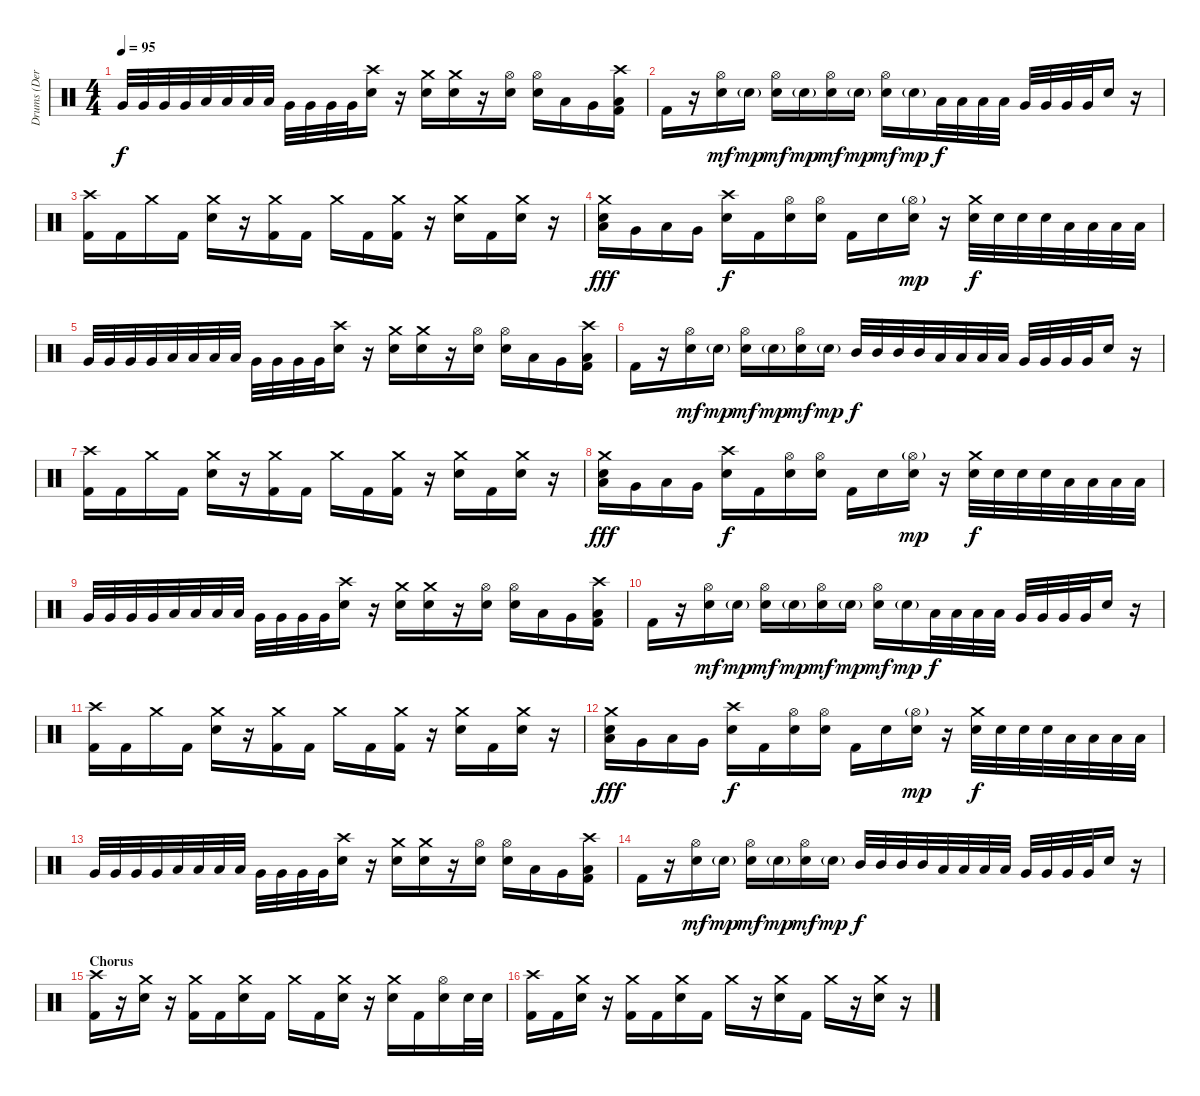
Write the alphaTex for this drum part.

\track ("Drums (Derek Bloom)" "Drums (Der") {instrument percussion}
\staff {score}
\articulation defaults
\ts (4 4)
\tempo 95
\clef neutral
\ks c "Very Low Tom (hit)".32{dy f} "Very Low Tom (hit)".32 "Very Low Tom (hit)".32 "Very Low Tom (hit)".32 "Low Tom (hit)".32 "Low Tom (hit)".32 "Low Tom (hit)".32 "Low Tom (hit)".32 "Very Low Tom (hit)".32 "Very Low Tom (hit)".32 "Very Low Tom (hit)".32 "Very Low Tom (hit)".32
("Crash high (hit)" "Electric Snare (hit)").16 r.16 ("Crash medium (hit)" "Electric Snare (hit)").16 ("Crash medium (hit)" "Electric Snare (hit)").16 r.16 ("Hi-Hat (open)" "Electric Snare (hit)").16 ("Hi-Hat (open)" "Electric Snare (hit)").16 "Low Tom (hit)".16 "Very Low Tom (hit)".16 ("Crash high (hit)" "Low Floor Tom (hit)" "Kick (hit) 2").16 |
"Kick (hit) 2".16 r.16 ("Hi-Hat (open)" "Electric Snare (hit)").16{dy mf} "Electric Snare (hit)"{g}.16{dy mp} ("Hi-Hat (open)" "Electric Snare (hit)").16{dy mf} "Electric Snare (hit)"{g}.16{dy mp} ("Hi-Hat (open)" "Electric Snare (hit)").16{dy mf} "Electric Snare (hit)"{g}.16{dy mp} ("Hi-Hat (open)" "Electric Snare (hit)").16{dy mf} "Electric Snare (hit)"{g}.16{dy mp} "Low Tom (hit)".32{dy f} "Low Tom (hit)".32 "Low Tom (hit)".32 "Low Tom (hit)".32 "Very Low Tom (hit)".32 "Very Low Tom (hit)".32 "Very Low Tom (hit)".32 "Very Low Tom (hit)".32 "Electric Snare (hit)".16 r.16 |
("Crash high (hit)" "Kick (hit) 2").16 "Kick (hit) 2".16 "Crash medium (hit)".16 "Kick (hit) 2".16 ("Crash medium (hit)" "Electric Snare (hit)").16 r.16 ("Crash medium (hit)" "Kick (hit) 2").16 "Kick (hit) 2".16 "Crash medium (hit)".16 "Kick (hit) 2".16 ("Crash medium (hit)" "Kick (hit) 2").16 r.16 ("Crash medium (hit)" "Electric Snare (hit)").16 "Kick (hit) 2".16 ("Crash medium (hit)" "Electric Snare (hit)").16 r.16 |
("Crash medium (hit)" "Electric Snare (hit)" "Low Tom (hit)").16{dy fff} "Very Low Tom (hit)".16 "Low Tom (hit)".16 "Very Low Tom (hit)".16 ("Crash high (hit)" "Electric Snare (hit)").16{dy f} "Kick (hit) 2".16 ("Hi-Hat (open)" "Electric Snare (hit)").16 ("Hi-Hat (open)" "Electric Snare (hit)").16 "Kick (hit) 2".16 "Electric Snare (hit)".16 ("Hi-Hat (open)"{g} "Electric Snare (hit)").16{dy mp} r.16 ("Crash medium (hit)" "Electric Snare (hit)").32{dy f} "Electric Snare (hit)".32 "Electric Snare (hit)".32 "Electric Snare (hit)".32 "Low Tom (hit)".32 "Low Tom (hit)".32 "Low Tom (hit)".32 "Low Tom (hit)".32 |
"Very Low Tom (hit)".32 "Very Low Tom (hit)".32 "Very Low Tom (hit)".32 "Very Low Tom (hit)".32 "Low Tom (hit)".32 "Low Tom (hit)".32 "Low Tom (hit)".32 "Low Tom (hit)".32 "Very Low Tom (hit)".32 "Very Low Tom (hit)".32 "Very Low Tom (hit)".32 "Very Low Tom (hit)".32 ("Crash high (hit)" "Electric Snare (hit)").16 r.16 ("Crash medium (hit)" "Electric Snare (hit)").16 ("Crash medium (hit)" "Electric Snare (hit)").16 r.16 ("Hi-Hat (open)" "Electric Snare (hit)").16 ("Hi-Hat (open)" "Electric Snare (hit)").16 "Low Tom (hit)".16 "Very Low Tom (hit)".16 ("Crash high (hit)" "Low Floor Tom (hit)" "Kick (hit) 2").16 |
"Kick (hit) 2".16 r.16 ("Hi-Hat (open)" "Electric Snare (hit)").16{dy mf} "Electric Snare (hit)"{g}.16{dy mp} ("Hi-Hat (open)" "Electric Snare (hit)").16{dy mf} "Electric Snare (hit)"{g}.16{dy mp} ("Hi-Hat (open)" "Electric Snare (hit)").16{dy mf} "Electric Snare (hit)"{g}.16{dy mp} "Mid Tom (hit)".32{dy f} "Mid Tom (hit)".32 "Mid Tom (hit)".32 "Mid Tom (hit)".32 "Low Tom (hit)".32 "Low Tom (hit)".32 "Low Tom (hit)".32 "Low Tom (hit)".32 "Very Low Tom (hit)".32 "Very Low Tom (hit)".32 "Very Low Tom (hit)".32 "Very Low Tom (hit)".32 "Electric Snare (hit)".16 r.16 |
("Crash high (hit)" "Kick (hit) 2").16 "Kick (hit) 2".16 "Crash medium (hit)".16 "Kick (hit) 2".16 ("Crash medium (hit)" "Electric Snare (hit)").16 r.16 ("Crash medium (hit)" "Kick (hit) 2").16 "Kick (hit) 2".16 "Crash medium (hit)".16 "Kick (hit) 2".16 ("Crash medium (hit)" "Kick (hit) 2").16 r.16 ("Crash medium (hit)" "Electric Snare (hit)").16 "Kick (hit) 2".16 ("Crash medium (hit)" "Electric Snare (hit)").16 r.16 |
("Crash medium (hit)" "Electric Snare (hit)" "Low Tom (hit)").16{dy fff} "Very Low Tom (hit)".16 "Low Tom (hit)".16 "Very Low Tom (hit)".16 ("Crash high (hit)" "Electric Snare (hit)").16{dy f} "Kick (hit) 2".16 ("Hi-Hat (open)" "Electric Snare (hit)").16 ("Hi-Hat (open)" "Electric Snare (hit)").16 "Kick (hit) 2".16 "Electric Snare (hit)".16 ("Hi-Hat (open)"{g} "Electric Snare (hit)").16{dy mp} r.16 ("Crash medium (hit)" "Electric Snare (hit)").32{dy f} "Electric Snare (hit)".32 "Electric Snare (hit)".32 "Electric Snare (hit)".32 "Low Tom (hit)".32 "Low Tom (hit)".32 "Low Tom (hit)".32 "Low Tom (hit)".32 |
"Very Low Tom (hit)".32 "Very Low Tom (hit)".32 "Very Low Tom (hit)".32 "Very Low Tom (hit)".32 "Low Tom (hit)".32 "Low Tom (hit)".32 "Low Tom (hit)".32 "Low Tom (hit)".32 "Very Low Tom (hit)".32 "Very Low Tom (hit)".32 "Very Low Tom (hit)".32 "Very Low Tom (hit)".32 ("Crash high (hit)" "Electric Snare (hit)").16 r.16 ("Crash medium (hit)" "Electric Snare (hit)").16 ("Crash medium (hit)" "Electric Snare (hit)").16 r.16 ("Hi-Hat (open)" "Electric Snare (hit)").16 ("Hi-Hat (open)" "Electric Snare (hit)").16 "Low Tom (hit)".16 "Very Low Tom (hit)".16 ("Crash high (hit)" "Low Floor Tom (hit)" "Kick (hit) 2").16 |
"Kick (hit) 2".16 r.16 ("Hi-Hat (open)" "Electric Snare (hit)").16{dy mf} "Electric Snare (hit)"{g}.16{dy mp} ("Hi-Hat (open)" "Electric Snare (hit)").16{dy mf} "Electric Snare (hit)"{g}.16{dy mp} ("Hi-Hat (open)" "Electric Snare (hit)").16{dy mf} "Electric Snare (hit)"{g}.16{dy mp} ("Hi-Hat (open)" "Electric Snare (hit)").16{dy mf} "Electric Snare (hit)"{g}.16{dy mp} "Low Tom (hit)".32{dy f} "Low Tom (hit)".32 "Low Tom (hit)".32 "Low Tom (hit)".32 "Very Low Tom (hit)".32 "Very Low Tom (hit)".32 "Very Low Tom (hit)".32 "Very Low Tom (hit)".32 "Electric Snare (hit)".16 r.16 |
("Crash high (hit)" "Kick (hit) 2").16 "Kick (hit) 2".16 "Crash medium (hit)".16 "Kick (hit) 2".16 ("Crash medium (hit)" "Electric Snare (hit)").16 r.16 ("Crash medium (hit)" "Kick (hit) 2").16 "Kick (hit) 2".16 "Crash medium (hit)".16 "Kick (hit) 2".16 ("Crash medium (hit)" "Kick (hit) 2").16 r.16 ("Crash medium (hit)" "Electric Snare (hit)").16 "Kick (hit) 2".16 ("Crash medium (hit)" "Electric Snare (hit)").16 r.16 |
("Crash medium (hit)" "Electric Snare (hit)" "Low Tom (hit)").16{dy fff} "Very Low Tom (hit)".16 "Low Tom (hit)".16 "Very Low Tom (hit)".16 ("Crash high (hit)" "Electric Snare (hit)").16{dy f} "Kick (hit) 2".16 ("Hi-Hat (open)" "Electric Snare (hit)").16 ("Hi-Hat (open)" "Electric Snare (hit)").16 "Kick (hit) 2".16 "Electric Snare (hit)".16 ("Hi-Hat (open)"{g} "Electric Snare (hit)").16{dy mp} r.16 ("Crash medium (hit)" "Electric Snare (hit)").32{dy f} "Electric Snare (hit)".32 "Electric Snare (hit)".32 "Electric Snare (hit)".32 "Low Tom (hit)".32 "Low Tom (hit)".32 "Low Tom (hit)".32 "Low Tom (hit)".32 |
"Very Low Tom (hit)".32 "Very Low Tom (hit)".32 "Very Low Tom (hit)".32 "Very Low Tom (hit)".32 "Low Tom (hit)".32 "Low Tom (hit)".32 "Low Tom (hit)".32 "Low Tom (hit)".32 "Very Low Tom (hit)".32 "Very Low Tom (hit)".32 "Very Low Tom (hit)".32 "Very Low Tom (hit)".32 ("Crash high (hit)" "Electric Snare (hit)").16 r.16 ("Crash medium (hit)" "Electric Snare (hit)").16 ("Crash medium (hit)" "Electric Snare (hit)").16 r.16 ("Hi-Hat (open)" "Electric Snare (hit)").16 ("Hi-Hat (open)" "Electric Snare (hit)").16 "Low Tom (hit)".16 "Very Low Tom (hit)".16 ("Crash high (hit)" "Low Floor Tom (hit)" "Kick (hit) 2").16 |
"Kick (hit) 2".16 r.16 ("Hi-Hat (open)" "Electric Snare (hit)").16{dy mf} "Electric Snare (hit)"{g}.16{dy mp} ("Hi-Hat (open)" "Electric Snare (hit)").16{dy mf} "Electric Snare (hit)"{g}.16{dy mp} ("Hi-Hat (open)" "Electric Snare (hit)").16{dy mf} "Electric Snare (hit)"{g}.16{dy mp} "Mid Tom (hit)".32{dy f} "Mid Tom (hit)".32 "Mid Tom (hit)".32 "Mid Tom (hit)".32 "Low Tom (hit)".32 "Low Tom (hit)".32 "Low Tom (hit)".32 "Low Tom (hit)".32 "Very Low Tom (hit)".32 "Very Low Tom (hit)".32 "Very Low Tom (hit)".32 "Very Low Tom (hit)".32 "Electric Snare (hit)".16 r.16 |
\section ("" "Chorus")
("Crash high (hit)" "Kick (hit) 2").16 r.16 ("Crash medium (hit)" "Electric Snare (hit)").16 r.16 ("Crash medium (hit)" "Kick (hit) 2").16 "Kick (hit) 2".16 ("Crash medium (hit)" "Electric Snare (hit)").16 "Kick (hit) 2".16 "Crash medium (hit)".16 "Kick (hit) 2".16 ("Crash medium (hit)" "Electric Snare (hit)").16 r.16 ("Crash medium (hit)" "Electric Snare (hit)").16 "Kick (hit) 2".16 ("Hi-Hat (open)" "Electric Snare (hit)").16 "Electric Snare (hit)".32 "Electric Snare (hit)".32 |
("Crash high (hit)" "Kick (hit) 2").16 "Kick (hit) 2".16 ("Crash medium (hit)" "Electric Snare (hit)").16 r.16 ("Crash medium (hit)" "Kick (hit) 2").16 "Kick (hit) 2".16 ("Crash medium (hit)" "Electric Snare (hit)").16 "Kick (hit) 2".16 "Crash medium (hit)".16 r.16 ("Crash medium (hit)" "Electric Snare (hit)").16 "Kick (hit) 2".16 "Crash medium (hit)".16 r.16 ("Crash medium (hit)" "Electric Snare (hit)").16 r.16
